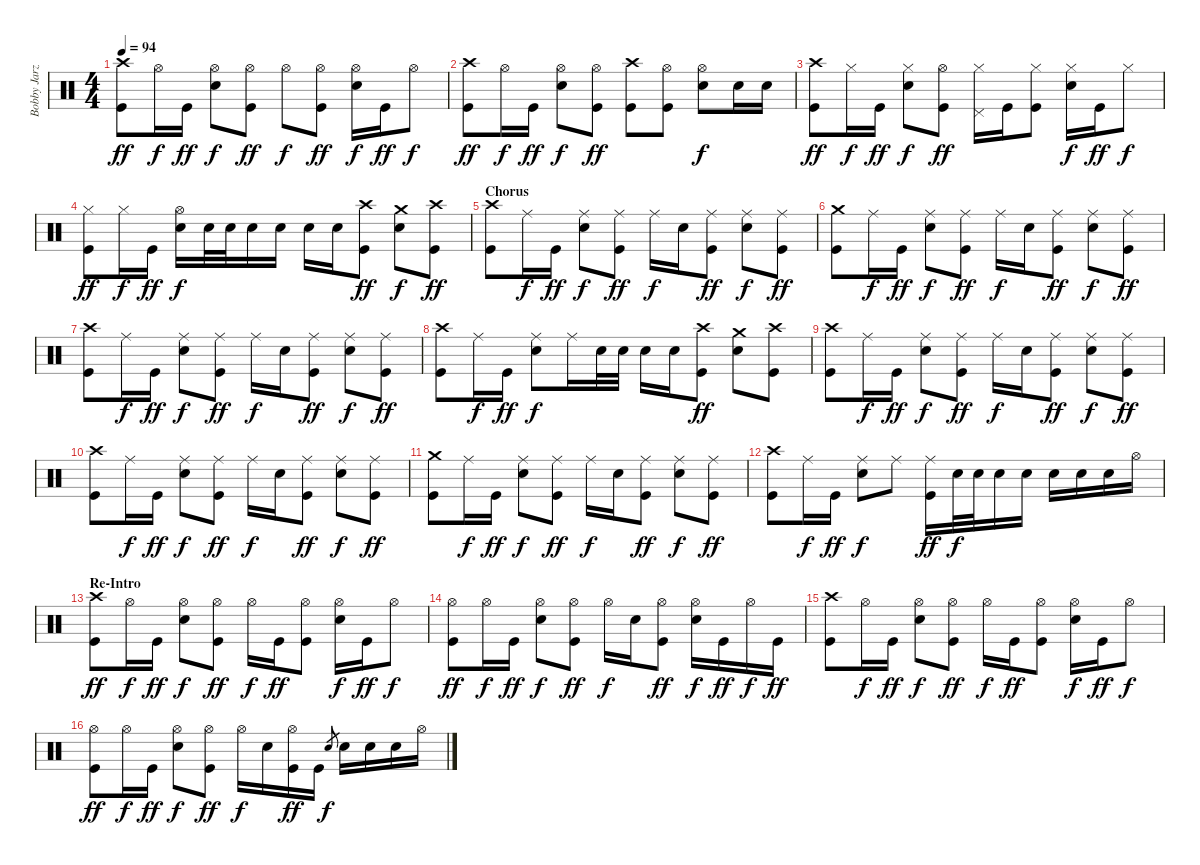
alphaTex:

\track ("Bobby Jarzombek" "Bobby Jarz") {instrument percussion}
\staff {score}
\articulation defaults
\ts (4 4)
\tempo 94
\clef neutral
\ks c
("Crash high (hit)" "Kick (hit)").8{dy ff} "Hi-Hat (open)".16{dy f} "Kick (hit)".16{dy ff} ("Hi-Hat (open)" "Electric Snare (hit)").8{dy f} ("Hi-Hat (open)" "Kick (hit)").8{dy ff} "Hi-Hat (open)".8{dy f} ("Hi-Hat (open)" "Kick (hit)").8{dy ff} ("Hi-Hat (open)" "Electric Snare (hit)").16{dy f} "Kick (hit)".16{dy ff} "Hi-Hat (open)".8{dy f} |
("Crash high (hit)" "Kick (hit)").8{dy ff} "Hi-Hat (open)".16{dy f} "Kick (hit)".16{dy ff} ("Hi-Hat (open)" "Electric Snare (hit)").8{dy f} ("Hi-Hat (open)" "Kick (hit)").8{dy ff} ("Crash high (hit)" "Kick (hit)").8 ("Hi-Hat (open)" "Kick (hit)").8 ("Hi-Hat (open)" "Electric Snare (hit)").8{dy f} "Electric Snare (hit)".16 "Electric Snare (hit)".16 |
("Crash high (hit)" "Kick (hit)").8{dy ff} "Hi-Hat (closed)".16{dy f} "Kick (hit)".16{dy ff} ("Hi-Hat (closed)" "Electric Snare (hit)").8{dy f} ("Hi-Hat (open)" "Kick (hit)").8{dy ff} ("Hi-Hat (closed)" "Pedal Hi-Hat (hit)").16 "Kick (hit)".16 ("Hi-Hat (closed)" "Kick (hit)").8 ("Hi-Hat (closed)" "Electric Snare (hit)").16{dy f} "Kick (hit)".16{dy ff} "Hi-Hat (closed)".8{dy f} |
("Hi-Hat (closed)" "Kick (hit)").8{dy ff} "Hi-Hat (closed)".16{dy f} "Kick (hit)".16{dy ff} ("Hi-Hat (open)" "Electric Snare (hit)").16{dy f} "Electric Snare (hit)".32 "Electric Snare (hit)".32 "Electric Snare (hit)".16 "Electric Snare (hit)".16 "Electric Snare (hit)".16 "Electric Snare (hit)".16 ("Crash high (hit)" "Kick (hit)").8{dy ff} ("Crash medium (hit)" "Electric Snare (hit)").8{dy f} ("Crash high (hit)" "Kick (hit)").8{dy ff} |
\section ("" "Chorus")
("Crash high (hit)" "Kick (hit)").8 "Ride (middle)".16{dy f} "Kick (hit)".16{dy ff} ("Ride (middle)" "Electric Snare (hit)").8{dy f} ("Ride (middle)" "Kick (hit)").8{dy ff} "Ride (middle)".16{dy f} "Electric Snare (hit)".16 ("Ride (middle)" "Kick (hit)").8{dy ff} ("Ride (middle)" "Electric Snare (hit)").8{dy f} ("Ride (middle)" "Kick (hit)").8{dy ff} |
("Crash medium (hit)" "Kick (hit)").8 "Ride (middle)".16{dy f} "Kick (hit)".16{dy ff} ("Ride (middle)" "Electric Snare (hit)").8{dy f} ("Ride (middle)" "Kick (hit)").8{dy ff} "Ride (middle)".16{dy f} "Electric Snare (hit)".16 ("Ride (middle)" "Kick (hit)").8{dy ff} ("Ride (middle)" "Electric Snare (hit)").8{dy f} ("Ride (middle)" "Kick (hit)").8{dy ff} |
("Crash high (hit)" "Kick (hit)").8 "Ride (middle)".16{dy f} "Kick (hit)".16{dy ff} ("Ride (middle)" "Electric Snare (hit)").8{dy f} ("Ride (middle)" "Kick (hit)").8{dy ff} "Ride (middle)".16{dy f} "Electric Snare (hit)".16 ("Ride (middle)" "Kick (hit)").8{dy ff} ("Ride (middle)" "Electric Snare (hit)").8{dy f} ("Ride (middle)" "Kick (hit)").8{dy ff} |
("Crash high (hit)" "Kick (hit)").8 "Ride (middle)".16{dy f} "Kick (hit)".16{dy ff} ("Ride (middle)" "Electric Snare (hit)").8{dy f} "Ride (middle)".16 "Electric Snare (hit)".32 "Electric Snare (hit)".32 "Electric Snare (hit)".16 "Electric Snare (hit)".16 ("Crash high (hit)" "Kick (hit)").8{dy ff} ("Crash medium (hit)" "Electric Snare (hit)").8 ("Crash high (hit)" "Kick (hit)").8 |
("Crash high (hit)" "Kick (hit)").8 "Ride (middle)".16{dy f} "Kick (hit)".16{dy ff} ("Ride (middle)" "Electric Snare (hit)").8{dy f} ("Ride (middle)" "Kick (hit)").8{dy ff} "Ride (middle)".16{dy f} "Electric Snare (hit)".16 ("Ride (middle)" "Kick (hit)").8{dy ff} ("Ride (middle)" "Electric Snare (hit)").8{dy f} ("Ride (middle)" "Kick (hit)").8{dy ff} |
("Crash high (hit)" "Kick (hit)").8 "Ride (middle)".16{dy f} "Kick (hit)".16{dy ff} ("Ride (middle)" "Electric Snare (hit)").8{dy f} ("Ride (middle)" "Kick (hit)").8{dy ff} "Ride (middle)".16{dy f} "Electric Snare (hit)".16 ("Ride (middle)" "Kick (hit)").8{dy ff} ("Ride (middle)" "Electric Snare (hit)").8{dy f} ("Ride (middle)" "Kick (hit)").8{dy ff} |
("Crash medium (hit)" "Kick (hit)").8 "Ride (middle)".16{dy f} "Kick (hit)".16{dy ff} ("Ride (middle)" "Electric Snare (hit)").8{dy f} ("Ride (middle)" "Kick (hit)").8{dy ff} "Ride (middle)".16{dy f} "Electric Snare (hit)".16 ("Ride (middle)" "Kick (hit)").8{dy ff} ("Ride (middle)" "Electric Snare (hit)").8{dy f} ("Ride (middle)" "Kick (hit)").8{dy ff} |
("Crash high (hit)" "Kick (hit)").8 "Ride (middle)".16{dy f} "Kick (hit)".16{dy ff} ("Ride (middle)" "Electric Snare (hit)").8{dy f} "Ride (middle)".8 ("Ride (middle)" "Kick (hit)").16{dy ff} "Electric Snare (hit)".32{dy f} "Electric Snare (hit)".32 "Electric Snare (hit)".16 "Electric Snare (hit)".16 "Electric Snare (hit)".16 "Electric Snare (hit)".16 "Electric Snare (hit)".16 "Hi-Hat (open)".16 |
\section ("" "Re-Intro")
("Crash high (hit)" "Kick (hit)").8{dy ff} "Hi-Hat (open)".16{dy f} "Kick (hit)".16{dy ff} ("Hi-Hat (open)" "Electric Snare (hit)").8{dy f} ("Hi-Hat (open)" "Kick (hit)").8{dy ff} "Hi-Hat (open)".16{dy f} "Kick (hit)".16{dy ff} ("Hi-Hat (open)" "Kick (hit)").8 ("Hi-Hat (open)" "Electric Snare (hit)").16{dy f} "Kick (hit)".16{dy ff} "Hi-Hat (open)".8{dy f} |
("Hi-Hat (open)" "Kick (hit)").8{dy ff} "Hi-Hat (open)".16{dy f} "Kick (hit)".16{dy ff} ("Hi-Hat (open)" "Electric Snare (hit)").8{dy f} ("Hi-Hat (open)" "Kick (hit)").8{dy ff} "Hi-Hat (open)".16{dy f} "Electric Snare (hit)".16 ("Hi-Hat (open)" "Kick (hit)").8{dy ff} ("Hi-Hat (open)" "Electric Snare (hit)").16{dy f} "Kick (hit)".16{dy ff} "Hi-Hat (open)".16{dy f} "Kick (hit)".16{dy ff} |
("Crash high (hit)" "Kick (hit)").8 "Hi-Hat (open)".16{dy f} "Kick (hit)".16{dy ff} ("Hi-Hat (open)" "Electric Snare (hit)").8{dy f} ("Hi-Hat (open)" "Kick (hit)").8{dy ff} "Hi-Hat (open)".16{dy f} "Kick (hit)".16{dy ff} ("Hi-Hat (open)" "Kick (hit)").8 ("Hi-Hat (open)" "Electric Snare (hit)").16{dy f} "Kick (hit)".16{dy ff} "Hi-Hat (open)".8{dy f} |
("Hi-Hat (open)" "Kick (hit)").8{dy ff} "Hi-Hat (open)".16{dy f} "Kick (hit)".16{dy ff} ("Hi-Hat (open)" "Electric Snare (hit)").8{dy f} ("Hi-Hat (open)" "Kick (hit)").8{dy ff} "Hi-Hat (open)".16{dy f} "Electric Snare (hit)".16 ("Hi-Hat (open)" "Kick (hit)").16{dy ff} "Kick (hit)".16 "Electric Snare (hit)".8{gr dy f} "Electric Snare (hit)".16 "Electric Snare (hit)".16 "Electric Snare (hit)".16 "Hi-Hat (open)".16
